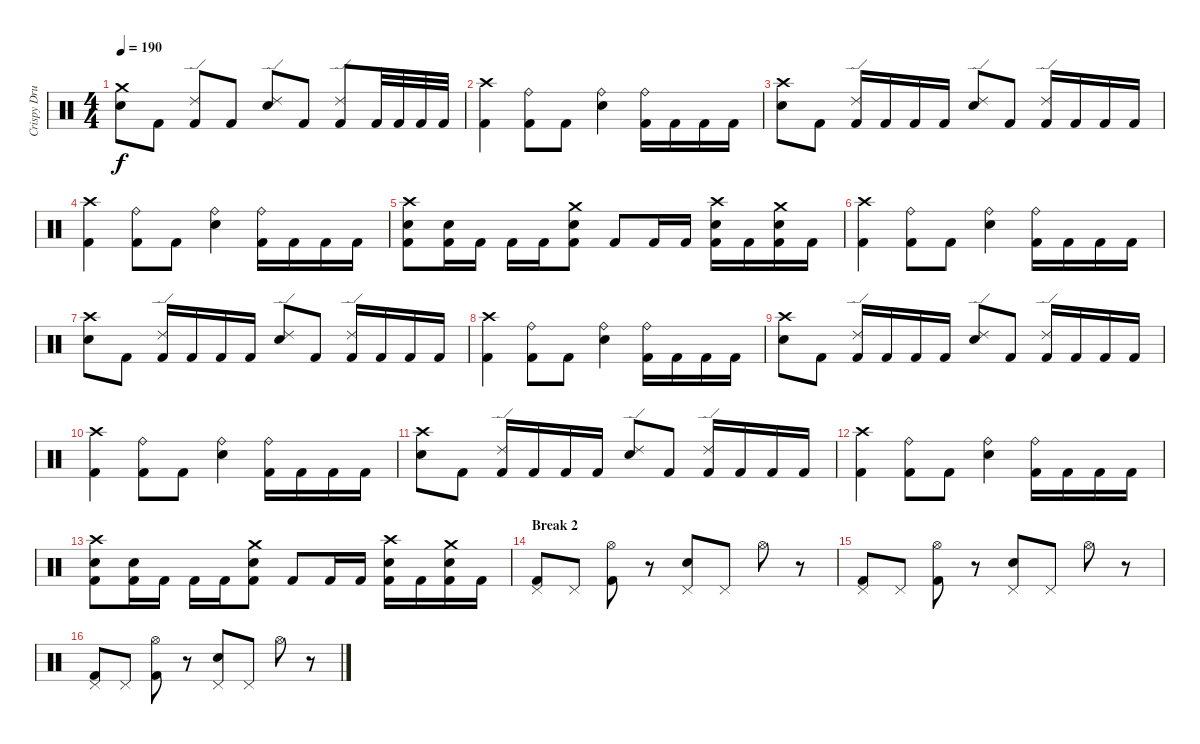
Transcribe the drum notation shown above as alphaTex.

\track ("Crispy Drums" "Crispy Dru") {instrument percussion}
\staff {score}
\articulation defaults
\ts (4 4)
\tempo 190
\clef neutral
\ks c
("Crash medium (hit)" "Electric Snare (hit)").8{dy f} "Kick (hit) 2".8 ("Ride (edge) 2" "Kick (hit) 2").8 "Kick (hit) 2".8 ("Ride (edge) 2" "Electric Snare (hit)").8 "Kick (hit) 2".8 ("Ride (edge) 2" "Kick (hit) 2").8 "Kick (hit) 2".32 "Kick (hit) 2".32 "Kick (hit) 2".32 "Kick (hit) 2".32 |
("Crash high (hit)" "Kick (hit) 2").4 ("Ride (bell)" "Kick (hit) 2").8 "Kick (hit) 2".8 ("Ride (bell)" "Electric Snare (hit)").4 ("Ride (bell)" "Kick (hit) 2").16 "Kick (hit) 2".16 "Kick (hit) 2".16 "Kick (hit) 2".16 |
("Crash high (hit)" "Electric Snare (hit)").8 "Kick (hit) 2".8 ("Ride (edge) 2" "Kick (hit) 2").16 "Kick (hit) 2".16 "Kick (hit) 2".16 "Kick (hit) 2".16 ("Ride (edge) 2" "Electric Snare (hit)").8 "Kick (hit) 2".8 ("Ride (edge) 2" "Kick (hit) 2").16 "Kick (hit) 2".16 "Kick (hit) 2".16 "Kick (hit) 2".16 |
("Crash high (hit)" "Kick (hit) 2").4 ("Ride (bell)" "Kick (hit) 2").8 "Kick (hit) 2".8 ("Ride (bell)" "Electric Snare (hit)").4 ("Ride (bell)" "Kick (hit) 2").16 "Kick (hit) 2".16 "Kick (hit) 2".16 "Kick (hit) 2".16 |
("Crash high (hit)" "Electric Snare (hit)" "Kick (hit) 2").8 ("Electric Snare (hit)" "Kick (hit) 2").16 "Kick (hit) 2".16 "Kick (hit) 2".16 "Kick (hit) 2".16 ("Crash medium (hit)" "Electric Snare (hit)" "Kick (hit) 2").8 "Kick (hit) 2".8 "Kick (hit) 2".16 "Kick (hit) 2".16 ("Crash high (hit)" "Electric Snare (hit)" "Kick (hit) 2").16 "Kick (hit) 2".16 ("Crash medium (hit)" "Electric Snare (hit)" "Kick (hit) 2").16 "Kick (hit) 2".16 |
("Crash high (hit)" "Kick (hit) 2").4 ("Ride (bell)" "Kick (hit) 2").8 "Kick (hit) 2".8 ("Ride (bell)" "Electric Snare (hit)").4 ("Ride (bell)" "Kick (hit) 2").16 "Kick (hit) 2".16 "Kick (hit) 2".16 "Kick (hit) 2".16 |
("Crash high (hit)" "Electric Snare (hit)").8 "Kick (hit) 2".8 ("Ride (edge) 2" "Kick (hit) 2").16 "Kick (hit) 2".16 "Kick (hit) 2".16 "Kick (hit) 2".16 ("Ride (edge) 2" "Electric Snare (hit)").8 "Kick (hit) 2".8 ("Ride (edge) 2" "Kick (hit) 2").16 "Kick (hit) 2".16 "Kick (hit) 2".16 "Kick (hit) 2".16 |
("Crash high (hit)" "Kick (hit) 2").4 ("Ride (bell)" "Kick (hit) 2").8 "Kick (hit) 2".8 ("Ride (bell)" "Electric Snare (hit)").4 ("Ride (bell)" "Kick (hit) 2").16 "Kick (hit) 2".16 "Kick (hit) 2".16 "Kick (hit) 2".16 |
("Crash high (hit)" "Electric Snare (hit)").8 "Kick (hit) 2".8 ("Ride (edge) 2" "Kick (hit) 2").16 "Kick (hit) 2".16 "Kick (hit) 2".16 "Kick (hit) 2".16 ("Ride (edge) 2" "Electric Snare (hit)").8 "Kick (hit) 2".8 ("Ride (edge) 2" "Kick (hit) 2").16 "Kick (hit) 2".16 "Kick (hit) 2".16 "Kick (hit) 2".16 |
("Crash high (hit)" "Kick (hit) 2").4 ("Ride (bell)" "Kick (hit) 2").8 "Kick (hit) 2".8 ("Ride (bell)" "Electric Snare (hit)").4 ("Ride (bell)" "Kick (hit) 2").16 "Kick (hit) 2".16 "Kick (hit) 2".16 "Kick (hit) 2".16 |
("Crash high (hit)" "Electric Snare (hit)").8 "Kick (hit) 2".8 ("Ride (edge) 2" "Kick (hit) 2").16 "Kick (hit) 2".16 "Kick (hit) 2".16 "Kick (hit) 2".16 ("Ride (edge) 2" "Electric Snare (hit)").8 "Kick (hit) 2".8 ("Ride (edge) 2" "Kick (hit) 2").16 "Kick (hit) 2".16 "Kick (hit) 2".16 "Kick (hit) 2".16 |
("Crash high (hit)" "Kick (hit) 2").4 ("Ride (bell)" "Kick (hit) 2").8 "Kick (hit) 2".8 ("Ride (bell)" "Electric Snare (hit)").4 ("Ride (bell)" "Kick (hit) 2").16 "Kick (hit) 2".16 "Kick (hit) 2".16 "Kick (hit) 2".16 |
("Crash high (hit)" "Electric Snare (hit)" "Kick (hit) 2").8 ("Electric Snare (hit)" "Kick (hit) 2").16 "Kick (hit) 2".16 "Kick (hit) 2".16 "Kick (hit) 2".16 ("Crash medium (hit)" "Electric Snare (hit)" "Kick (hit) 2").8 "Kick (hit) 2".8 "Kick (hit) 2".16 "Kick (hit) 2".16 ("Crash high (hit)" "Electric Snare (hit)" "Kick (hit) 2").16 "Kick (hit) 2".16 ("Crash medium (hit)" "Electric Snare (hit)" "Kick (hit) 2").16 "Kick (hit) 2".16 |
\section ("" "Break 2")
("Pedal Hi-Hat (hit)" "Kick (hit) 2").8 "Pedal Hi-Hat (hit)".8 ("Hi-Hat (open)" "Kick (hit) 2").8 r.8 ("Pedal Hi-Hat (hit)" "Electric Snare (hit)").8 "Pedal Hi-Hat (hit)".8 "Hi-Hat (open)".8 r.8 |
("Pedal Hi-Hat (hit)" "Kick (hit) 2").8 "Pedal Hi-Hat (hit)".8 ("Hi-Hat (open)" "Kick (hit) 2").8 r.8 ("Pedal Hi-Hat (hit)" "Electric Snare (hit)").8 "Pedal Hi-Hat (hit)".8 "Hi-Hat (open)".8 r.8 |
("Pedal Hi-Hat (hit)" "Kick (hit) 2").8 "Pedal Hi-Hat (hit)".8 ("Hi-Hat (open)" "Kick (hit) 2").8 r.8 ("Pedal Hi-Hat (hit)" "Electric Snare (hit)").8 "Pedal Hi-Hat (hit)".8 "Hi-Hat (open)".8 r.8
